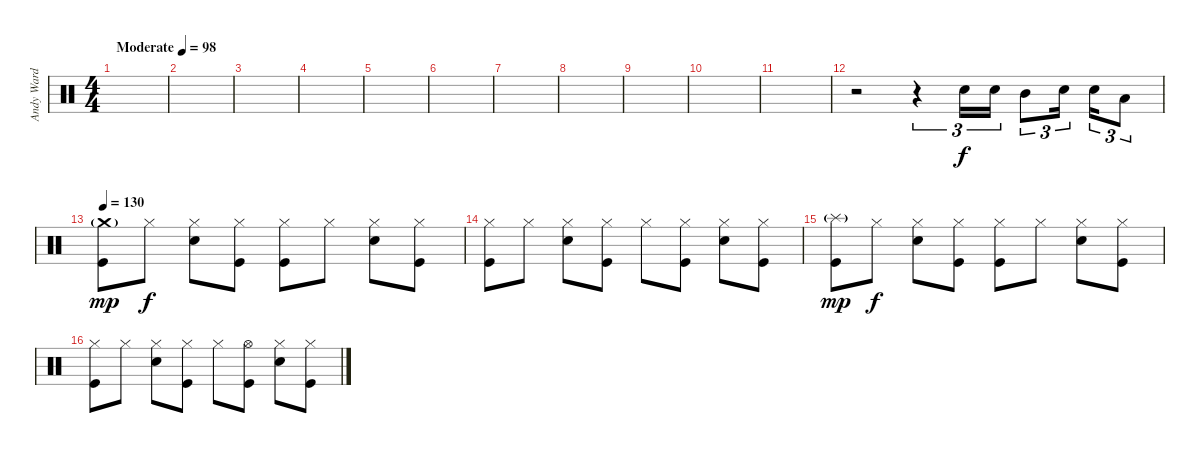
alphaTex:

\track ("Andy Ward (Drums)" "Andy Ward ") {instrument percussion}
\staff {score}
\articulation defaults
\ts (4 4)
\tempo (98 "Moderate")
\clef neutral
\ks c
|
|
|
|
|
|
|
|
|
|
|
r.2 r.4{tu (3 2)} "Electric Snare (hit)".16{tu (3 2)} "Electric Snare (hit)".16{tu (3 2)} "Mid Tom (hit)".8{tu (3 2)} "Electric Snare (hit)".16{tu (3 2) beam splitsecondary} "Electric Snare (hit)".16{tu (3 2)} "Low Tom (hit)".8{tu (3 2)} |
\tempo 130
("Crash medium (hit)"{g} "Kick (hit)").8{dy mp} "Hi-Hat (closed)".8{dy f} ("Hi-Hat (closed)" "Electric Snare (hit)").8 ("Hi-Hat (closed)" "Kick (hit)").8 ("Hi-Hat (closed)" "Kick (hit)").8 "Hi-Hat (closed)".8 ("Hi-Hat (closed)" "Electric Snare (hit)").8 ("Hi-Hat (closed)" "Kick (hit)").8 |
("Hi-Hat (closed)" "Kick (hit)").8 "Hi-Hat (closed)".8 ("Hi-Hat (closed)" "Electric Snare (hit)").8 ("Hi-Hat (closed)" "Kick (hit)").8 "Hi-Hat (closed)".8 ("Hi-Hat (closed)" "Kick (hit)").8 ("Hi-Hat (closed)" "Electric Snare (hit)").8 ("Hi-Hat (closed)" "Kick (hit)").8 |
("Splash (hit)"{g} "Kick (hit)").8{dy mp} "Hi-Hat (closed)".8{dy f} ("Hi-Hat (closed)" "Electric Snare (hit)").8 ("Hi-Hat (closed)" "Kick (hit)").8 ("Hi-Hat (closed)" "Kick (hit)").8 "Hi-Hat (closed)".8 ("Hi-Hat (closed)" "Electric Snare (hit)").8 ("Hi-Hat (closed)" "Kick (hit)").8 |
("Hi-Hat (closed)" "Kick (hit)").8 "Hi-Hat (closed)".8 ("Hi-Hat (closed)" "Electric Snare (hit)").8 ("Hi-Hat (closed)" "Kick (hit)").8 "Hi-Hat (closed)".8 ("Hi-Hat (open)" "Kick (hit)").8 ("Hi-Hat (closed)" "Electric Snare (hit)").8 ("Hi-Hat (closed)" "Kick (hit)").8
